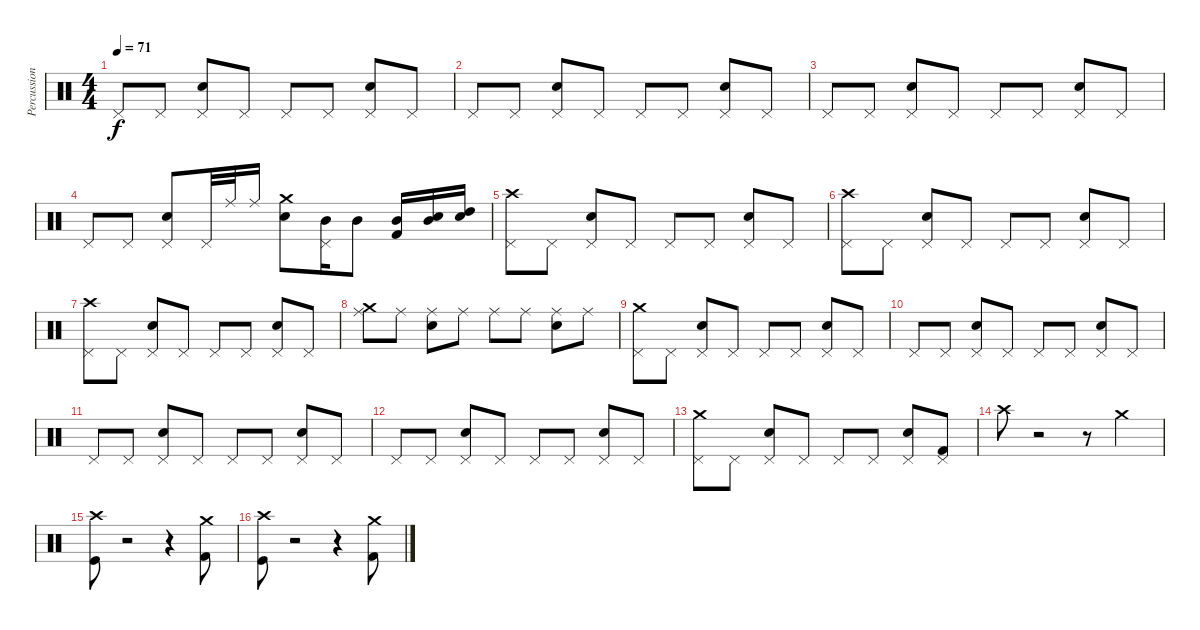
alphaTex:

\track ("Percussion" "Percussion") {instrument percussion}
\staff {score}
\articulation defaults
\ts (4 4)
\tempo 71
\clef neutral
\ks c "Pedal Hi-Hat (hit)".8{dy f} "Pedal Hi-Hat (hit)".8
("Pedal Hi-Hat (hit)" "Electric Snare (hit)").8 "Pedal Hi-Hat (hit)".8 "Pedal Hi-Hat (hit)".8 "Pedal Hi-Hat (hit)".8 ("Pedal Hi-Hat (hit)" "Electric Snare (hit)").8 "Pedal Hi-Hat (hit)".8 |
"Pedal Hi-Hat (hit)".8 "Pedal Hi-Hat (hit)".8 ("Pedal Hi-Hat (hit)" "Electric Snare (hit)").8 "Pedal Hi-Hat (hit)".8 "Pedal Hi-Hat (hit)".8 "Pedal Hi-Hat (hit)".8 ("Pedal Hi-Hat (hit)" "Electric Snare (hit)").8 "Pedal Hi-Hat (hit)".8 |
"Pedal Hi-Hat (hit)".8 "Pedal Hi-Hat (hit)".8 ("Pedal Hi-Hat (hit)" "Electric Snare (hit)").8 "Pedal Hi-Hat (hit)".8 "Pedal Hi-Hat (hit)".8 "Pedal Hi-Hat (hit)".8 ("Pedal Hi-Hat (hit)" "Electric Snare (hit)").8 "Pedal Hi-Hat (hit)".8 |
"Pedal Hi-Hat (hit)".8 "Pedal Hi-Hat (hit)".8 ("Pedal Hi-Hat (hit)" "Electric Snare (hit)").8 "Pedal Hi-Hat (hit)".32 "Ride (middle)".32 "Ride (middle)".16 ("Crash medium (hit)" "Electric Snare (hit)").8 ("Pedal Hi-Hat (hit)" "Mid Tom (hit)").16 "Mid Tom (hit)".8 ("Kick (hit) 2" "Mid Tom (hit)").16 ("Snare (hit) 2" "Mid Tom (hit)").16 ("Electric Snare (hit)" "High Tom (hit)").16 |
("Pedal Hi-Hat (hit)" "Crash high (hit)").8 "Pedal Hi-Hat (hit)".8 ("Pedal Hi-Hat (hit)" "Electric Snare (hit)").8 "Pedal Hi-Hat (hit)".8 "Pedal Hi-Hat (hit)".8 "Pedal Hi-Hat (hit)".8 ("Pedal Hi-Hat (hit)" "Electric Snare (hit)").8 "Pedal Hi-Hat (hit)".8 |
("Pedal Hi-Hat (hit)" "Crash high (hit)").8 "Pedal Hi-Hat (hit)".8 ("Pedal Hi-Hat (hit)" "Electric Snare (hit)").8 "Pedal Hi-Hat (hit)".8 "Pedal Hi-Hat (hit)".8 "Pedal Hi-Hat (hit)".8 ("Pedal Hi-Hat (hit)" "Electric Snare (hit)").8 "Pedal Hi-Hat (hit)".8 |
("Pedal Hi-Hat (hit)" "Crash high (hit)").8 "Pedal Hi-Hat (hit)".8 ("Pedal Hi-Hat (hit)" "Electric Snare (hit)").8 "Pedal Hi-Hat (hit)".8 "Pedal Hi-Hat (hit)".8 "Pedal Hi-Hat (hit)".8 ("Pedal Hi-Hat (hit)" "Electric Snare (hit)").8 "Pedal Hi-Hat (hit)".8 |
("Ride (middle)" "Crash medium (hit)").8 "Ride (middle)".8 ("Ride (middle)" "Electric Snare (hit)").8 "Ride (middle)".8 "Ride (middle)".8 "Ride (middle)".8 ("Ride (middle)" "Electric Snare (hit)").8 "Ride (middle)".8 |
("Pedal Hi-Hat (hit)" "Crash medium (hit)").8 "Pedal Hi-Hat (hit)".8 ("Pedal Hi-Hat (hit)" "Electric Snare (hit)").8 "Pedal Hi-Hat (hit)".8 "Pedal Hi-Hat (hit)".8 "Pedal Hi-Hat (hit)".8 ("Pedal Hi-Hat (hit)" "Electric Snare (hit)").8 "Pedal Hi-Hat (hit)".8 |
"Pedal Hi-Hat (hit)".8 "Pedal Hi-Hat (hit)".8 ("Pedal Hi-Hat (hit)" "Electric Snare (hit)").8 "Pedal Hi-Hat (hit)".8 "Pedal Hi-Hat (hit)".8 "Pedal Hi-Hat (hit)".8 ("Pedal Hi-Hat (hit)" "Electric Snare (hit)").8 "Pedal Hi-Hat (hit)".8 |
"Pedal Hi-Hat (hit)".8 "Pedal Hi-Hat (hit)".8 ("Pedal Hi-Hat (hit)" "Electric Snare (hit)").8 "Pedal Hi-Hat (hit)".8 "Pedal Hi-Hat (hit)".8 "Pedal Hi-Hat (hit)".8 ("Pedal Hi-Hat (hit)" "Electric Snare (hit)").8 "Pedal Hi-Hat (hit)".8 |
"Pedal Hi-Hat (hit)".8 "Pedal Hi-Hat (hit)".8 ("Pedal Hi-Hat (hit)" "Electric Snare (hit)").8 "Pedal Hi-Hat (hit)".8 "Pedal Hi-Hat (hit)".8 "Pedal Hi-Hat (hit)".8 ("Pedal Hi-Hat (hit)" "Electric Snare (hit)").8 "Pedal Hi-Hat (hit)".8 |
("Pedal Hi-Hat (hit)" "Crash medium (hit)").8 "Pedal Hi-Hat (hit)".8 ("Pedal Hi-Hat (hit)" "Electric Snare (hit)").8 "Pedal Hi-Hat (hit)".8 "Pedal Hi-Hat (hit)".8 "Pedal Hi-Hat (hit)".8 ("Pedal Hi-Hat (hit)" "Electric Snare (hit)").8 ("Pedal Hi-Hat (hit)" "Kick (hit) 2").8 |
"Crash high (hit)".8 r.2 r.8 "Crash medium (hit)".4 |
("Crash high (hit)" "Kick (hit)").8 r.2 r.4 ("Crash medium (hit)" "Kick (hit) 2").8 |
("Crash high (hit)" "Kick (hit)").8 r.2 r.4 ("Crash medium (hit)" "Kick (hit) 2").8
